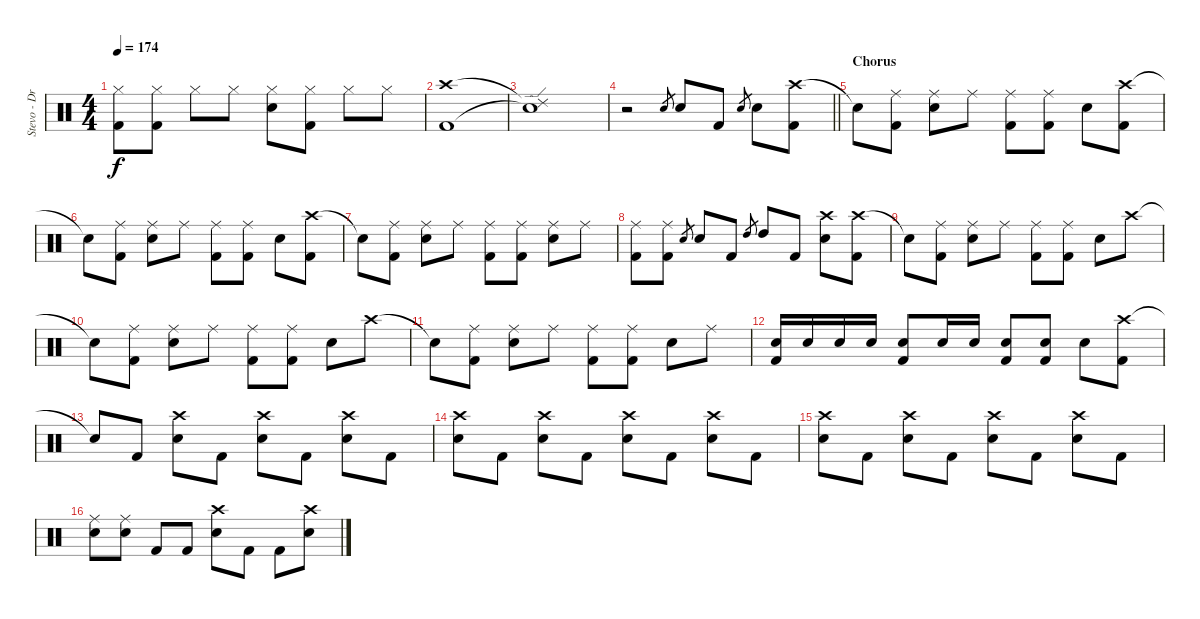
\track ("Stevo - Drums" "Stevo - Dr") {instrument percussion}
\staff {score}
\articulation defaults
\ts (4 4)
\tempo 174
\clef neutral
\ks c
("Hi-Hat (closed)" "Kick (hit) 2").8{dy f} ("Hi-Hat (closed)" "Kick (hit) 2").8 "Hi-Hat (closed)".8 "Hi-Hat (closed)".8 ("Hi-Hat (closed)" "Electric Snare (hit)").8 ("Hi-Hat (closed)" "Kick (hit) 2").8 "Hi-Hat (closed)".8 "Hi-Hat (closed)".8 |
("Crash high (hit)" "Kick (hit) 2").1 |
("Ride (edge) 2"{t} "Snare (hit)"{t}).1 |
\barLineRight lightlight
r.2 "Electric Snare (hit)".8{gr} "Electric Snare (hit)".8 "Kick (hit) 2".8 "Electric Snare (hit)".8{gr} "Electric Snare (hit)".8 ("Crash high (hit)" "Kick (hit) 2").8 |
\section ("" "Chorus")
"Snare (hit)"{t}.8 ("Ride (middle)" "Kick (hit) 2").8 ("Ride (middle)" "Electric Snare (hit)").8 "Ride (middle)".8 ("Ride (middle)" "Kick (hit) 2").8 ("Ride (middle)" "Kick (hit) 2").8 "Electric Snare (hit)".8 ("Crash high (hit)" "Kick (hit) 2").8 |
"Snare (hit)"{t}.8 ("Ride (middle)" "Kick (hit) 2").8 ("Ride (middle)" "Electric Snare (hit)").8 "Ride (middle)".8 ("Ride (middle)" "Kick (hit) 2").8 ("Ride (middle)" "Kick (hit) 2").8 "Electric Snare (hit)".8 ("Crash high (hit)" "Kick (hit) 2").8 |
"Snare (hit)"{t}.8 ("Ride (middle)" "Kick (hit) 2").8 ("Ride (middle)" "Electric Snare (hit)").8 "Ride (middle)".8 ("Ride (middle)" "Kick (hit) 2").8 ("Ride (middle)" "Kick (hit) 2").8 ("Ride (middle)" "Electric Snare (hit)").8 "Ride (middle)".8 |
("Ride (middle)" "Kick (hit) 2").8 ("Ride (middle)" "Kick (hit) 2").8 "Electric Snare (hit)".8{gr} "Electric Snare (hit)".8 "Kick (hit) 2".8 "High Tom (hit)".8{gr} "High Tom (hit)".8 "Kick (hit) 2".8 ("Crash high (hit)" "Electric Snare (hit)").8 ("Crash high (hit)" "Kick (hit) 2").8 |
"Snare (hit)"{t}.8 ("Ride (middle)" "Kick (hit) 2").8 ("Ride (middle)" "Electric Snare (hit)").8 "Ride (middle)".8 ("Ride (middle)" "Kick (hit) 2").8 ("Ride (middle)" "Kick (hit) 2").8 "Electric Snare (hit)".8 "Crash high (hit)".8 |
"Snare (hit)"{t}.8 ("Ride (middle)" "Kick (hit) 2").8 ("Ride (middle)" "Electric Snare (hit)").8 "Ride (middle)".8 ("Ride (middle)" "Kick (hit) 2").8 ("Ride (middle)" "Kick (hit) 2").8 "Electric Snare (hit)".8 "Crash high (hit)".8 |
"Snare (hit)"{t}.8 ("Ride (middle)" "Kick (hit) 2").8 ("Ride (middle)" "Electric Snare (hit)").8 "Ride (middle)".8 ("Ride (middle)" "Kick (hit) 2").8 ("Ride (middle)" "Kick (hit) 2").8 "Electric Snare (hit)".8 "Ride (middle)".8 |
("Electric Snare (hit)" "Kick (hit) 2").16 "Electric Snare (hit)".16 "Electric Snare (hit)".16 "Electric Snare (hit)".16 ("Electric Snare (hit)" "Kick (hit) 2").8 "Electric Snare (hit)".16 "Electric Snare (hit)".16 ("Electric Snare (hit)" "Kick (hit) 2").8 ("Electric Snare (hit)" "Kick (hit) 2").8 "Electric Snare (hit)".8 ("Crash high (hit)" "Kick (hit) 2").8 |
"Snare (hit)"{t}.8 "Kick (hit) 2".8 ("Crash high (hit)" "Electric Snare (hit)").8 "Kick (hit) 2".8 ("Crash high (hit)" "Electric Snare (hit)").8 "Kick (hit) 2".8 ("Crash high (hit)" "Electric Snare (hit)").8 "Kick (hit) 2".8 |
("Crash high (hit)" "Electric Snare (hit)").8 "Kick (hit) 2".8 ("Crash high (hit)" "Electric Snare (hit)").8 "Kick (hit) 2".8 ("Crash high (hit)" "Electric Snare (hit)").8 "Kick (hit) 2".8 ("Crash high (hit)" "Electric Snare (hit)").8 "Kick (hit) 2".8 |
("Crash high (hit)" "Electric Snare (hit)").8 "Kick (hit) 2".8 ("Crash high (hit)" "Electric Snare (hit)").8 "Kick (hit) 2".8 ("Crash high (hit)" "Electric Snare (hit)").8 "Kick (hit) 2".8 ("Crash high (hit)" "Electric Snare (hit)").8 "Kick (hit) 2".8 |
("Ride (middle)" "Electric Snare (hit)").8 ("Ride (middle)" "Electric Snare (hit)").8 "Kick (hit) 2".8 "Kick (hit) 2".8 ("Crash high (hit)" "Electric Snare (hit)").8 "Kick (hit) 2".8 "Kick (hit) 2".8 ("Crash high (hit)" "Electric Snare (hit)").8
